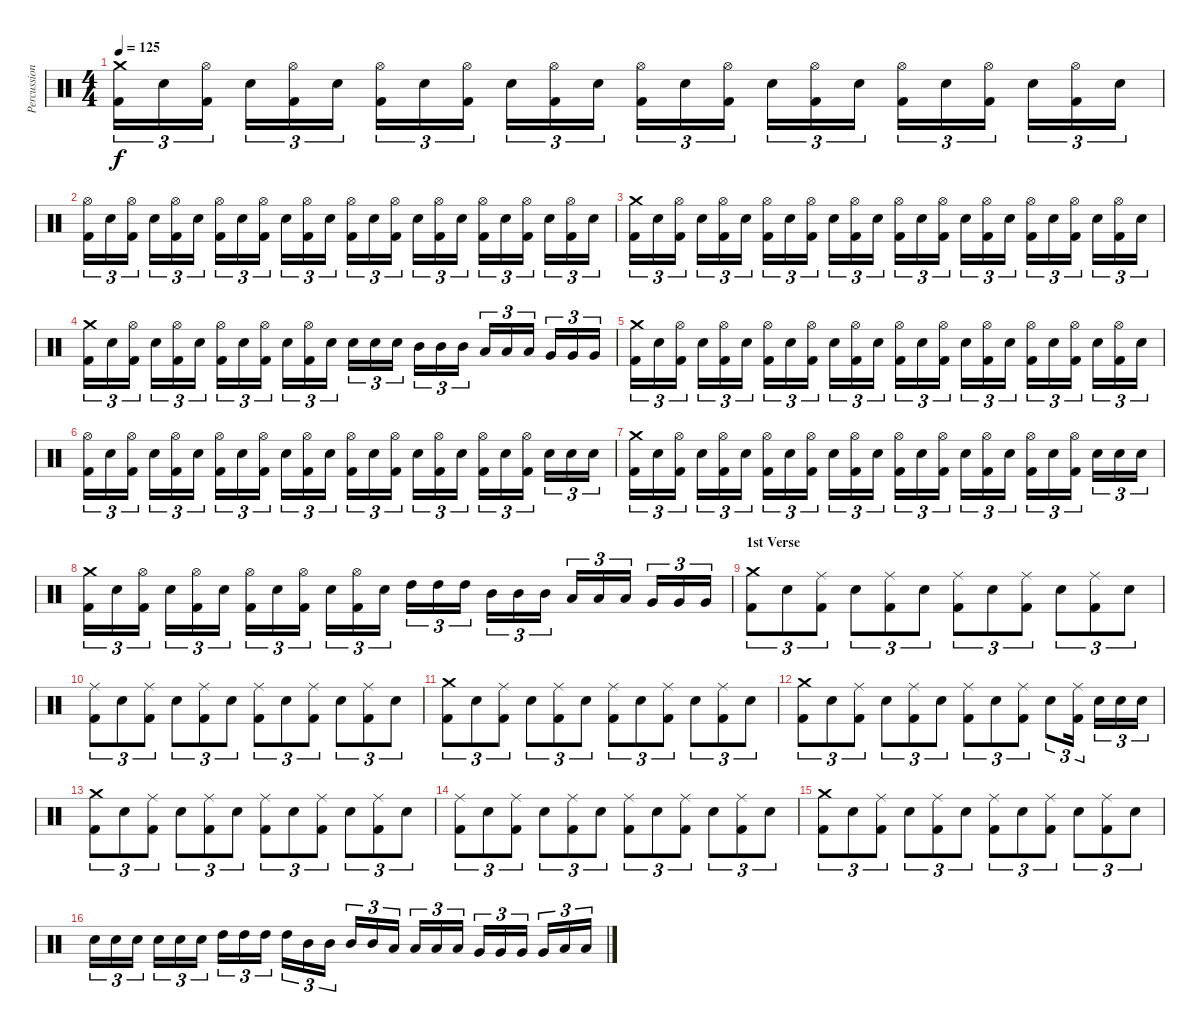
\track ("Percussion" "Percussion") {instrument percussion}
\staff {score}
\articulation defaults
\ts (4 4)
\tempo 125
\clef neutral
\ks c
("Kick (hit) 2" "Crash medium (hit)").16{tu (3 2) dy f} "Electric Snare (hit)".16{tu (3 2)} ("Kick (hit) 2" "Hi-Hat (open)").16{tu (3 2)} "Electric Snare (hit)".16{tu (3 2)} ("Kick (hit) 2" "Hi-Hat (open)").16{tu (3 2)} "Electric Snare (hit)".16{tu (3 2)} ("Kick (hit) 2" "Hi-Hat (open)").16{tu (3 2)} "Electric Snare (hit)".16{tu (3 2)} ("Kick (hit) 2" "Hi-Hat (open)").16{tu (3 2)} "Electric Snare (hit)".16{tu (3 2)} ("Kick (hit) 2" "Hi-Hat (open)").16{tu (3 2)} "Electric Snare (hit)".16{tu (3 2)} ("Kick (hit) 2" "Hi-Hat (open)").16{tu (3 2)} "Electric Snare (hit)".16{tu (3 2)} ("Kick (hit) 2" "Hi-Hat (open)").16{tu (3 2)} "Electric Snare (hit)".16{tu (3 2)} ("Kick (hit) 2" "Hi-Hat (open)").16{tu (3 2)} "Electric Snare (hit)".16{tu (3 2)} ("Kick (hit) 2" "Hi-Hat (open)").16{tu (3 2)} "Electric Snare (hit)".16{tu (3 2)} ("Kick (hit) 2" "Hi-Hat (open)").16{tu (3 2)} "Electric Snare (hit)".16{tu (3 2)} ("Kick (hit) 2" "Hi-Hat (open)").16{tu (3 2)} "Electric Snare (hit)".16{tu (3 2)} |
("Kick (hit) 2" "Hi-Hat (open)").16{tu (3 2)} "Electric Snare (hit)".16{tu (3 2)} ("Kick (hit) 2" "Hi-Hat (open)").16{tu (3 2)} "Electric Snare (hit)".16{tu (3 2)} ("Kick (hit) 2" "Hi-Hat (open)").16{tu (3 2)} "Electric Snare (hit)".16{tu (3 2)} ("Kick (hit) 2" "Hi-Hat (open)").16{tu (3 2)} "Electric Snare (hit)".16{tu (3 2)} ("Kick (hit) 2" "Hi-Hat (open)").16{tu (3 2)} "Electric Snare (hit)".16{tu (3 2)} ("Kick (hit) 2" "Hi-Hat (open)").16{tu (3 2)} "Electric Snare (hit)".16{tu (3 2)} ("Kick (hit) 2" "Hi-Hat (open)").16{tu (3 2)} "Electric Snare (hit)".16{tu (3 2)} ("Kick (hit) 2" "Hi-Hat (open)").16{tu (3 2)} "Electric Snare (hit)".16{tu (3 2)} ("Kick (hit) 2" "Hi-Hat (open)").16{tu (3 2)} "Electric Snare (hit)".16{tu (3 2)} ("Kick (hit) 2" "Hi-Hat (open)").16{tu (3 2)} "Electric Snare (hit)".16{tu (3 2)} ("Kick (hit) 2" "Hi-Hat (open)").16{tu (3 2)} "Electric Snare (hit)".16{tu (3 2)} ("Kick (hit) 2" "Hi-Hat (open)").16{tu (3 2)} "Electric Snare (hit)".16{tu (3 2)} |
("Kick (hit) 2" "Crash medium (hit)").16{tu (3 2)} "Electric Snare (hit)".16{tu (3 2)} ("Kick (hit) 2" "Hi-Hat (open)").16{tu (3 2)} "Electric Snare (hit)".16{tu (3 2)} ("Kick (hit) 2" "Hi-Hat (open)").16{tu (3 2)} "Electric Snare (hit)".16{tu (3 2)} ("Kick (hit) 2" "Hi-Hat (open)").16{tu (3 2)} "Electric Snare (hit)".16{tu (3 2)} ("Kick (hit) 2" "Hi-Hat (open)").16{tu (3 2)} "Electric Snare (hit)".16{tu (3 2)} ("Kick (hit) 2" "Hi-Hat (open)").16{tu (3 2)} "Electric Snare (hit)".16{tu (3 2)} ("Kick (hit) 2" "Hi-Hat (open)").16{tu (3 2)} "Electric Snare (hit)".16{tu (3 2)} ("Kick (hit) 2" "Hi-Hat (open)").16{tu (3 2)} "Electric Snare (hit)".16{tu (3 2)} ("Kick (hit) 2" "Hi-Hat (open)").16{tu (3 2)} "Electric Snare (hit)".16{tu (3 2)} ("Kick (hit) 2" "Hi-Hat (open)").16{tu (3 2)} "Electric Snare (hit)".16{tu (3 2)} ("Kick (hit) 2" "Hi-Hat (open)").16{tu (3 2)} "Electric Snare (hit)".16{tu (3 2)} ("Kick (hit) 2" "Hi-Hat (open)").16{tu (3 2)} "Electric Snare (hit)".16{tu (3 2)} |
("Kick (hit) 2" "Crash medium (hit)").16{tu (3 2)} "Electric Snare (hit)".16{tu (3 2)} ("Kick (hit) 2" "Hi-Hat (open)").16{tu (3 2)} "Electric Snare (hit)".16{tu (3 2)} ("Kick (hit) 2" "Hi-Hat (open)").16{tu (3 2)} "Electric Snare (hit)".16{tu (3 2)} ("Kick (hit) 2" "Hi-Hat (open)").16{tu (3 2)} "Electric Snare (hit)".16{tu (3 2)} ("Kick (hit) 2" "Hi-Hat (open)").16{tu (3 2)} "Electric Snare (hit)".16{tu (3 2)} ("Kick (hit) 2" "Hi-Hat (open)").16{tu (3 2)} "Electric Snare (hit)".16{tu (3 2)} "Electric Snare (hit)".16{tu (3 2)} "Electric Snare (hit)".16{tu (3 2)} "Electric Snare (hit)".16{tu (3 2)} "Mid Tom (hit)".16{tu (3 2)} "Mid Tom (hit)".16{tu (3 2)} "Mid Tom (hit)".16{tu (3 2)} "Low Tom (hit)".16{tu (3 2)} "Low Tom (hit)".16{tu (3 2)} "Low Tom (hit)".16{tu (3 2)} "Very Low Tom (hit)".16{tu (3 2)} "Very Low Tom (hit)".16{tu (3 2)} "Very Low Tom (hit)".16{tu (3 2)} |
("Kick (hit) 2" "Crash medium (hit)").16{tu (3 2)} "Electric Snare (hit)".16{tu (3 2)} ("Kick (hit) 2" "Hi-Hat (open)").16{tu (3 2)} "Electric Snare (hit)".16{tu (3 2)} ("Kick (hit) 2" "Hi-Hat (open)").16{tu (3 2)} "Electric Snare (hit)".16{tu (3 2)} ("Kick (hit) 2" "Hi-Hat (open)").16{tu (3 2)} "Electric Snare (hit)".16{tu (3 2)} ("Kick (hit) 2" "Hi-Hat (open)").16{tu (3 2)} "Electric Snare (hit)".16{tu (3 2)} ("Kick (hit) 2" "Hi-Hat (open)").16{tu (3 2)} "Electric Snare (hit)".16{tu (3 2)} ("Kick (hit) 2" "Hi-Hat (open)").16{tu (3 2)} "Electric Snare (hit)".16{tu (3 2)} ("Kick (hit) 2" "Hi-Hat (open)").16{tu (3 2)} "Electric Snare (hit)".16{tu (3 2)} ("Kick (hit) 2" "Hi-Hat (open)").16{tu (3 2)} "Electric Snare (hit)".16{tu (3 2)} ("Kick (hit) 2" "Hi-Hat (open)").16{tu (3 2)} "Electric Snare (hit)".16{tu (3 2)} ("Kick (hit) 2" "Hi-Hat (open)").16{tu (3 2)} "Electric Snare (hit)".16{tu (3 2)} ("Kick (hit) 2" "Hi-Hat (open)").16{tu (3 2)} "Electric Snare (hit)".16{tu (3 2)} |
("Kick (hit) 2" "Hi-Hat (open)").16{tu (3 2)} "Electric Snare (hit)".16{tu (3 2)} ("Kick (hit) 2" "Hi-Hat (open)").16{tu (3 2)} "Electric Snare (hit)".16{tu (3 2)} ("Kick (hit) 2" "Hi-Hat (open)").16{tu (3 2)} "Electric Snare (hit)".16{tu (3 2)} ("Kick (hit) 2" "Hi-Hat (open)").16{tu (3 2)} "Electric Snare (hit)".16{tu (3 2)} ("Kick (hit) 2" "Hi-Hat (open)").16{tu (3 2)} "Electric Snare (hit)".16{tu (3 2)} ("Kick (hit) 2" "Hi-Hat (open)").16{tu (3 2)} "Electric Snare (hit)".16{tu (3 2)} ("Kick (hit) 2" "Hi-Hat (open)").16{tu (3 2)} "Electric Snare (hit)".16{tu (3 2)} ("Kick (hit) 2" "Hi-Hat (open)").16{tu (3 2)} "Electric Snare (hit)".16{tu (3 2)} ("Kick (hit) 2" "Hi-Hat (open)").16{tu (3 2)} "Electric Snare (hit)".16{tu (3 2)} ("Kick (hit) 2" "Hi-Hat (open)").16{tu (3 2)} "Electric Snare (hit)".16{tu (3 2)} ("Kick (hit) 2" "Hi-Hat (open)").16{tu (3 2)} "Electric Snare (hit)".16{tu (3 2)} "Electric Snare (hit)".16{tu (3 2)} "Electric Snare (hit)".16{tu (3 2)} |
("Kick (hit) 2" "Crash medium (hit)").16{tu (3 2)} "Electric Snare (hit)".16{tu (3 2)} ("Kick (hit) 2" "Hi-Hat (open)").16{tu (3 2)} "Electric Snare (hit)".16{tu (3 2)} ("Kick (hit) 2" "Hi-Hat (open)").16{tu (3 2)} "Electric Snare (hit)".16{tu (3 2)} ("Kick (hit) 2" "Hi-Hat (open)").16{tu (3 2)} "Electric Snare (hit)".16{tu (3 2)} ("Kick (hit) 2" "Hi-Hat (open)").16{tu (3 2)} "Electric Snare (hit)".16{tu (3 2)} ("Kick (hit) 2" "Hi-Hat (open)").16{tu (3 2)} "Electric Snare (hit)".16{tu (3 2)} ("Kick (hit) 2" "Hi-Hat (open)").16{tu (3 2)} "Electric Snare (hit)".16{tu (3 2)} ("Kick (hit) 2" "Hi-Hat (open)").16{tu (3 2)} "Electric Snare (hit)".16{tu (3 2)} ("Kick (hit) 2" "Hi-Hat (open)").16{tu (3 2)} "Electric Snare (hit)".16{tu (3 2)} ("Kick (hit) 2" "Hi-Hat (open)").16{tu (3 2)} "Electric Snare (hit)".16{tu (3 2)} ("Kick (hit) 2" "Hi-Hat (open)").16{tu (3 2)} "Electric Snare (hit)".16{tu (3 2)} "Electric Snare (hit)".16{tu (3 2)} "Electric Snare (hit)".16{tu (3 2)} |
("Kick (hit) 2" "Crash medium (hit)").16{tu (3 2)} "Electric Snare (hit)".16{tu (3 2)} ("Kick (hit) 2" "Hi-Hat (open)").16{tu (3 2)} "Electric Snare (hit)".16{tu (3 2)} ("Kick (hit) 2" "Hi-Hat (open)").16{tu (3 2)} "Electric Snare (hit)".16{tu (3 2)} ("Kick (hit) 2" "Hi-Hat (open)").16{tu (3 2)} "Electric Snare (hit)".16{tu (3 2)} ("Kick (hit) 2" "Hi-Hat (open)").16{tu (3 2)} "Electric Snare (hit)".16{tu (3 2)} ("Kick (hit) 2" "Hi-Hat (open)").16{tu (3 2)} "Electric Snare (hit)".16{tu (3 2)} "High Tom (hit)".16{tu (3 2)} "High Tom (hit)".16{tu (3 2)} "High Tom (hit)".16{tu (3 2)} "Mid Tom (hit)".16{tu (3 2)} "Mid Tom (hit)".16{tu (3 2)} "Mid Tom (hit)".16{tu (3 2)} "Low Tom (hit)".16{tu (3 2)} "Low Tom (hit)".16{tu (3 2)} "Low Tom (hit)".16{tu (3 2)} "Very Low Tom (hit)".16{tu (3 2)} "Very Low Tom (hit)".16{tu (3 2)} "Very Low Tom (hit)".16{tu (3 2)} |
\section ("" "1st Verse")
("Kick (hit) 2" "Crash medium (hit)").8{tu (3 2)} "Electric Snare (hit)".8{tu (3 2)} ("Kick (hit) 2" "Ride (middle)").8{tu (3 2)} "Electric Snare (hit)".8{tu (3 2)} ("Kick (hit) 2" "Ride (middle)").8{tu (3 2)} "Electric Snare (hit)".8{tu (3 2)} ("Kick (hit) 2" "Ride (middle)").8{tu (3 2)} "Electric Snare (hit)".8{tu (3 2)} ("Kick (hit) 2" "Ride (middle)").8{tu (3 2)} "Electric Snare (hit)".8{tu (3 2)} ("Kick (hit) 2" "Ride (middle)").8{tu (3 2)} "Electric Snare (hit)".8{tu (3 2)} |
("Kick (hit) 2" "Ride (middle)").8{tu (3 2)} "Electric Snare (hit)".8{tu (3 2)} ("Kick (hit) 2" "Ride (middle)").8{tu (3 2)} "Electric Snare (hit)".8{tu (3 2)} ("Kick (hit) 2" "Ride (middle)").8{tu (3 2)} "Electric Snare (hit)".8{tu (3 2)} ("Kick (hit) 2" "Ride (middle)").8{tu (3 2)} "Electric Snare (hit)".8{tu (3 2)} ("Kick (hit) 2" "Ride (middle)").8{tu (3 2)} "Electric Snare (hit)".8{tu (3 2)} ("Kick (hit) 2" "Ride (middle)").8{tu (3 2)} "Electric Snare (hit)".8{tu (3 2)} |
("Kick (hit) 2" "Crash medium (hit)").8{tu (3 2)} "Electric Snare (hit)".8{tu (3 2)} ("Kick (hit) 2" "Ride (middle)").8{tu (3 2)} "Electric Snare (hit)".8{tu (3 2)} ("Kick (hit) 2" "Ride (middle)").8{tu (3 2)} "Electric Snare (hit)".8{tu (3 2)} ("Kick (hit) 2" "Ride (middle)").8{tu (3 2)} "Electric Snare (hit)".8{tu (3 2)} ("Kick (hit) 2" "Ride (middle)").8{tu (3 2)} "Electric Snare (hit)".8{tu (3 2)} ("Kick (hit) 2" "Ride (middle)").8{tu (3 2)} "Electric Snare (hit)".8{tu (3 2)} |
("Kick (hit) 2" "Crash medium (hit)").8{tu (3 2)} "Electric Snare (hit)".8{tu (3 2)} ("Kick (hit) 2" "Ride (middle)").8{tu (3 2)} "Electric Snare (hit)".8{tu (3 2)} ("Kick (hit) 2" "Ride (middle)").8{tu (3 2)} "Electric Snare (hit)".8{tu (3 2)} ("Kick (hit) 2" "Ride (middle)").8{tu (3 2)} "Electric Snare (hit)".8{tu (3 2)} ("Kick (hit) 2" "Ride (middle)").8{tu (3 2)} "Electric Snare (hit)".8{tu (3 2)} ("Kick (hit) 2" "Ride (middle)").16{tu (3 2)} "Electric Snare (hit)".16{tu (3 2)} "Electric Snare (hit)".16{tu (3 2)} "Electric Snare (hit)".16{tu (3 2)} |
("Kick (hit) 2" "Crash medium (hit)").8{tu (3 2)} "Electric Snare (hit)".8{tu (3 2)} ("Kick (hit) 2" "Ride (middle)").8{tu (3 2)} "Electric Snare (hit)".8{tu (3 2)} ("Kick (hit) 2" "Ride (middle)").8{tu (3 2)} "Electric Snare (hit)".8{tu (3 2)} ("Kick (hit) 2" "Ride (middle)").8{tu (3 2)} "Electric Snare (hit)".8{tu (3 2)} ("Kick (hit) 2" "Ride (middle)").8{tu (3 2)} "Electric Snare (hit)".8{tu (3 2)} ("Kick (hit) 2" "Ride (middle)").8{tu (3 2)} "Electric Snare (hit)".8{tu (3 2)} |
("Kick (hit) 2" "Ride (middle)").8{tu (3 2)} "Electric Snare (hit)".8{tu (3 2)} ("Kick (hit) 2" "Ride (middle)").8{tu (3 2)} "Electric Snare (hit)".8{tu (3 2)} ("Kick (hit) 2" "Ride (middle)").8{tu (3 2)} "Electric Snare (hit)".8{tu (3 2)} ("Kick (hit) 2" "Ride (middle)").8{tu (3 2)} "Electric Snare (hit)".8{tu (3 2)} ("Kick (hit) 2" "Ride (middle)").8{tu (3 2)} "Electric Snare (hit)".8{tu (3 2)} ("Kick (hit) 2" "Ride (middle)").8{tu (3 2)} "Electric Snare (hit)".8{tu (3 2)} |
("Kick (hit) 2" "Crash medium (hit)").8{tu (3 2)} "Electric Snare (hit)".8{tu (3 2)} ("Kick (hit) 2" "Ride (middle)").8{tu (3 2)} "Electric Snare (hit)".8{tu (3 2)} ("Kick (hit) 2" "Ride (middle)").8{tu (3 2)} "Electric Snare (hit)".8{tu (3 2)} ("Kick (hit) 2" "Ride (middle)").8{tu (3 2)} "Electric Snare (hit)".8{tu (3 2)} ("Kick (hit) 2" "Ride (middle)").8{tu (3 2)} "Electric Snare (hit)".8{tu (3 2)} ("Kick (hit) 2" "Ride (middle)").8{tu (3 2)} "Electric Snare (hit)".8{tu (3 2)} |
"Electric Snare (hit)".16{tu (3 2)} "Electric Snare (hit)".16{tu (3 2)} "Electric Snare (hit)".16{tu (3 2)} "Electric Snare (hit)".16{tu (3 2)} "Electric Snare (hit)".16{tu (3 2)} "Electric Snare (hit)".16{tu (3 2)} "High Tom (hit)".16{tu (3 2)} "High Tom (hit)".16{tu (3 2)} "High Tom (hit)".16{tu (3 2)} "High Tom (hit)".16{tu (3 2)} "Mid Tom (hit)".16{tu (3 2)} "Mid Tom (hit)".16{tu (3 2)} "Mid Tom (hit)".16{tu (3 2)} "Mid Tom (hit)".16{tu (3 2)} "Low Tom (hit)".16{tu (3 2)} "Low Tom (hit)".16{tu (3 2)} "Low Tom (hit)".16{tu (3 2)} "Low Tom (hit)".16{tu (3 2)} "Very Low Tom (hit)".16{tu (3 2)} "Very Low Tom (hit)".16{tu (3 2)} "Very Low Tom (hit)".16{tu (3 2)} "Very Low Tom (hit)".16{tu (3 2)} "Low Floor Tom (hit)".16{tu (3 2)} "Low Floor Tom (hit)".16{tu (3 2)}
